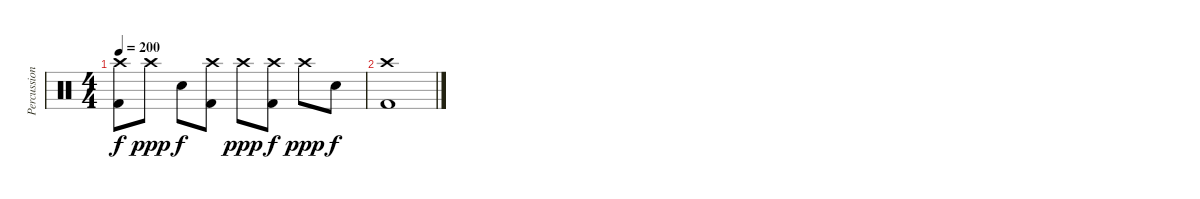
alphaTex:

\track ("Percussions" "Percussion") {instrument percussion}
\staff {score}
\articulation defaults
\ts (4 4)
\tempo 200
\clef neutral
\ks c
("Crash high (hit)" "Kick (hit) 2").8{dy f} "Crash high (hit)".8{dy ppp} "Snare (hit) 2".8{dy f} ("Crash high (hit)" "Kick (hit) 2").8 "Crash high (hit)".8{dy ppp} ("Crash high (hit)" "Kick (hit) 2").8{dy f} "Crash high (hit)".8{dy ppp} "Snare (hit) 2".8{dy f} |
("Crash high (hit)" "Kick (hit) 2").1
